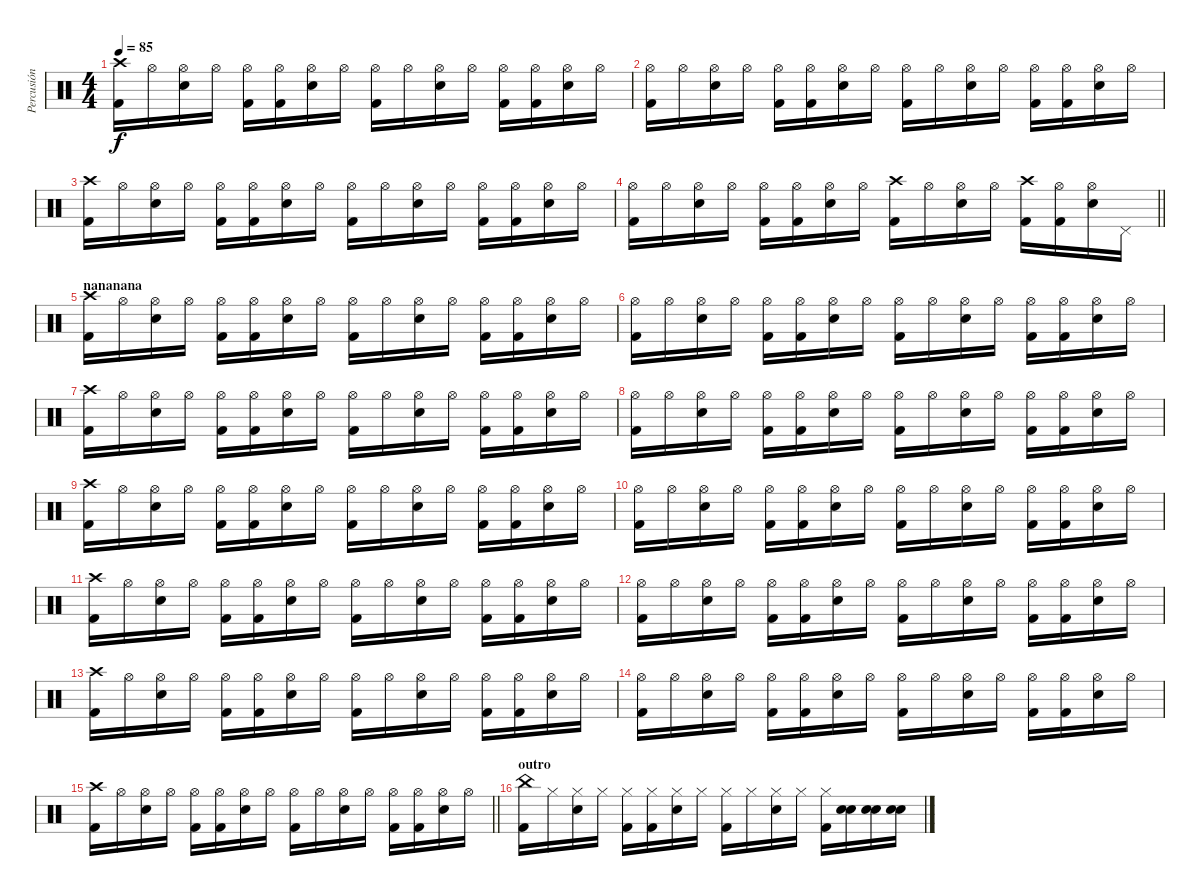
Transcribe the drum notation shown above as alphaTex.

\track ("Percusión" "Percusión") {instrument percussion}
\staff {score}
\articulation defaults
\ts (4 4)
\tempo 85
\clef neutral
\ks c
("Crash high (hit)" "Kick (hit) 2").16{dy f} "Hi-Hat (open)".16 ("Hi-Hat (open)" "Electric Snare (hit)").16 "Hi-Hat (open)".16 ("Hi-Hat (open)" "Kick (hit) 2").16 ("Hi-Hat (open)" "Kick (hit) 2").16 ("Hi-Hat (open)" "Electric Snare (hit)").16 "Hi-Hat (open)".16 ("Hi-Hat (open)" "Kick (hit) 2").16 "Hi-Hat (open)".16 ("Hi-Hat (open)" "Electric Snare (hit)").16 "Hi-Hat (open)".16 ("Hi-Hat (open)" "Kick (hit) 2").16 ("Hi-Hat (open)" "Kick (hit) 2").16 ("Hi-Hat (open)" "Electric Snare (hit)").16 "Hi-Hat (open)".16 |
("Hi-Hat (open)" "Kick (hit) 2").16 "Hi-Hat (open)".16 ("Hi-Hat (open)" "Electric Snare (hit)").16 "Hi-Hat (open)".16 ("Hi-Hat (open)" "Kick (hit) 2").16 ("Hi-Hat (open)" "Kick (hit) 2").16 ("Hi-Hat (open)" "Electric Snare (hit)").16 "Hi-Hat (open)".16 ("Hi-Hat (open)" "Kick (hit) 2").16 "Hi-Hat (open)".16 ("Hi-Hat (open)" "Electric Snare (hit)").16 "Hi-Hat (open)".16 ("Hi-Hat (open)" "Kick (hit) 2").16 ("Hi-Hat (open)" "Kick (hit) 2").16 ("Hi-Hat (open)" "Electric Snare (hit)").16 "Hi-Hat (open)".16 |
("Crash high (hit)" "Kick (hit) 2").16 "Hi-Hat (open)".16 ("Hi-Hat (open)" "Electric Snare (hit)").16 "Hi-Hat (open)".16 ("Hi-Hat (open)" "Kick (hit) 2").16 ("Hi-Hat (open)" "Kick (hit) 2").16 ("Hi-Hat (open)" "Electric Snare (hit)").16 "Hi-Hat (open)".16 ("Hi-Hat (open)" "Kick (hit) 2").16 "Hi-Hat (open)".16 ("Hi-Hat (open)" "Electric Snare (hit)").16 "Hi-Hat (open)".16 ("Hi-Hat (open)" "Kick (hit) 2").16 ("Hi-Hat (open)" "Kick (hit) 2").16 ("Hi-Hat (open)" "Electric Snare (hit)").16 "Hi-Hat (open)".16 |
\barLineRight lightlight
("Hi-Hat (open)" "Kick (hit) 2").16 "Hi-Hat (open)".16 ("Hi-Hat (open)" "Electric Snare (hit)").16 "Hi-Hat (open)".16 ("Hi-Hat (open)" "Kick (hit) 2").16 ("Hi-Hat (open)" "Kick (hit) 2").16 ("Hi-Hat (open)" "Electric Snare (hit)").16 "Hi-Hat (open)".16 ("Crash high (hit)" "Kick (hit) 2").16 "Hi-Hat (open)".16 ("Hi-Hat (open)" "Electric Snare (hit)").16 "Hi-Hat (open)".16 ("Crash high (hit)" "Kick (hit) 2").16 ("Hi-Hat (open)" "Kick (hit) 2").16 ("Hi-Hat (open)" "Electric Snare (hit)").16 "Pedal Hi-Hat (hit)".16 |
\section ("" "nananana")
("Crash high (hit)" "Kick (hit) 2").16 "Hi-Hat (open)".16 ("Hi-Hat (open)" "Electric Snare (hit)").16 "Hi-Hat (open)".16 ("Hi-Hat (open)" "Kick (hit) 2").16 ("Hi-Hat (open)" "Kick (hit) 2").16 ("Hi-Hat (open)" "Electric Snare (hit)").16 "Hi-Hat (open)".16 ("Hi-Hat (open)" "Kick (hit) 2").16 "Hi-Hat (open)".16 ("Hi-Hat (open)" "Electric Snare (hit)").16 "Hi-Hat (open)".16 ("Hi-Hat (open)" "Kick (hit) 2").16 ("Hi-Hat (open)" "Kick (hit) 2").16 ("Hi-Hat (open)" "Electric Snare (hit)").16 "Hi-Hat (open)".16 |
("Hi-Hat (open)" "Kick (hit) 2").16 "Hi-Hat (open)".16 ("Hi-Hat (open)" "Electric Snare (hit)").16 "Hi-Hat (open)".16 ("Hi-Hat (open)" "Kick (hit) 2").16 ("Hi-Hat (open)" "Kick (hit) 2").16 ("Hi-Hat (open)" "Electric Snare (hit)").16 "Hi-Hat (open)".16 ("Hi-Hat (open)" "Kick (hit) 2").16 "Hi-Hat (open)".16 ("Hi-Hat (open)" "Electric Snare (hit)").16 "Hi-Hat (open)".16 ("Hi-Hat (open)" "Kick (hit) 2").16 ("Hi-Hat (open)" "Kick (hit) 2").16 ("Hi-Hat (open)" "Electric Snare (hit)").16 "Hi-Hat (open)".16 |
("Crash high (hit)" "Kick (hit) 2").16 "Hi-Hat (open)".16 ("Hi-Hat (open)" "Electric Snare (hit)").16 "Hi-Hat (open)".16 ("Hi-Hat (open)" "Kick (hit) 2").16 ("Hi-Hat (open)" "Kick (hit) 2").16 ("Hi-Hat (open)" "Electric Snare (hit)").16 "Hi-Hat (open)".16 ("Hi-Hat (open)" "Kick (hit) 2").16 "Hi-Hat (open)".16 ("Hi-Hat (open)" "Electric Snare (hit)").16 "Hi-Hat (open)".16 ("Hi-Hat (open)" "Kick (hit) 2").16 ("Hi-Hat (open)" "Kick (hit) 2").16 ("Hi-Hat (open)" "Electric Snare (hit)").16 "Hi-Hat (open)".16 |
("Hi-Hat (open)" "Kick (hit) 2").16 "Hi-Hat (open)".16 ("Hi-Hat (open)" "Electric Snare (hit)").16 "Hi-Hat (open)".16 ("Hi-Hat (open)" "Kick (hit) 2").16 ("Hi-Hat (open)" "Kick (hit) 2").16 ("Hi-Hat (open)" "Electric Snare (hit)").16 "Hi-Hat (open)".16 ("Hi-Hat (open)" "Kick (hit) 2").16 "Hi-Hat (open)".16 ("Hi-Hat (open)" "Electric Snare (hit)").16 "Hi-Hat (open)".16 ("Hi-Hat (open)" "Kick (hit) 2").16 ("Hi-Hat (open)" "Kick (hit) 2").16 ("Hi-Hat (open)" "Electric Snare (hit)").16 "Hi-Hat (open)".16 |
("Crash high (hit)" "Kick (hit) 2").16 "Hi-Hat (open)".16 ("Hi-Hat (open)" "Electric Snare (hit)").16 "Hi-Hat (open)".16 ("Hi-Hat (open)" "Kick (hit) 2").16 ("Hi-Hat (open)" "Kick (hit) 2").16 ("Hi-Hat (open)" "Electric Snare (hit)").16 "Hi-Hat (open)".16 ("Hi-Hat (open)" "Kick (hit) 2").16 "Hi-Hat (open)".16 ("Hi-Hat (open)" "Electric Snare (hit)").16 "Hi-Hat (open)".16 ("Hi-Hat (open)" "Kick (hit) 2").16 ("Hi-Hat (open)" "Kick (hit) 2").16 ("Hi-Hat (open)" "Electric Snare (hit)").16 "Hi-Hat (open)".16 |
("Hi-Hat (open)" "Kick (hit) 2").16 "Hi-Hat (open)".16 ("Hi-Hat (open)" "Electric Snare (hit)").16 "Hi-Hat (open)".16 ("Hi-Hat (open)" "Kick (hit) 2").16 ("Hi-Hat (open)" "Kick (hit) 2").16 ("Hi-Hat (open)" "Electric Snare (hit)").16 "Hi-Hat (open)".16 ("Hi-Hat (open)" "Kick (hit) 2").16 "Hi-Hat (open)".16 ("Hi-Hat (open)" "Electric Snare (hit)").16 "Hi-Hat (open)".16 ("Hi-Hat (open)" "Kick (hit) 2").16 ("Hi-Hat (open)" "Kick (hit) 2").16 ("Hi-Hat (open)" "Electric Snare (hit)").16 "Hi-Hat (open)".16 |
("Crash high (hit)" "Kick (hit) 2").16 "Hi-Hat (open)".16 ("Hi-Hat (open)" "Electric Snare (hit)").16 "Hi-Hat (open)".16 ("Hi-Hat (open)" "Kick (hit) 2").16 ("Hi-Hat (open)" "Kick (hit) 2").16 ("Hi-Hat (open)" "Electric Snare (hit)").16 "Hi-Hat (open)".16 ("Hi-Hat (open)" "Kick (hit) 2").16 "Hi-Hat (open)".16 ("Hi-Hat (open)" "Electric Snare (hit)").16 "Hi-Hat (open)".16 ("Hi-Hat (open)" "Kick (hit) 2").16 ("Hi-Hat (open)" "Kick (hit) 2").16 ("Hi-Hat (open)" "Electric Snare (hit)").16 "Hi-Hat (open)".16 |
("Hi-Hat (open)" "Kick (hit) 2").16 "Hi-Hat (open)".16 ("Hi-Hat (open)" "Electric Snare (hit)").16 "Hi-Hat (open)".16 ("Hi-Hat (open)" "Kick (hit) 2").16 ("Hi-Hat (open)" "Kick (hit) 2").16 ("Hi-Hat (open)" "Electric Snare (hit)").16 "Hi-Hat (open)".16 ("Hi-Hat (open)" "Kick (hit) 2").16 "Hi-Hat (open)".16 ("Hi-Hat (open)" "Electric Snare (hit)").16 "Hi-Hat (open)".16 ("Hi-Hat (open)" "Kick (hit) 2").16 ("Hi-Hat (open)" "Kick (hit) 2").16 ("Hi-Hat (open)" "Electric Snare (hit)").16 "Hi-Hat (open)".16 |
("Crash high (hit)" "Kick (hit) 2").16 "Hi-Hat (open)".16 ("Hi-Hat (open)" "Electric Snare (hit)").16 "Hi-Hat (open)".16 ("Hi-Hat (open)" "Kick (hit) 2").16 ("Hi-Hat (open)" "Kick (hit) 2").16 ("Hi-Hat (open)" "Electric Snare (hit)").16 "Hi-Hat (open)".16 ("Hi-Hat (open)" "Kick (hit) 2").16 "Hi-Hat (open)".16 ("Hi-Hat (open)" "Electric Snare (hit)").16 "Hi-Hat (open)".16 ("Hi-Hat (open)" "Kick (hit) 2").16 ("Hi-Hat (open)" "Kick (hit) 2").16 ("Hi-Hat (open)" "Electric Snare (hit)").16 "Hi-Hat (open)".16 |
("Hi-Hat (open)" "Kick (hit) 2").16 "Hi-Hat (open)".16 ("Hi-Hat (open)" "Electric Snare (hit)").16 "Hi-Hat (open)".16 ("Hi-Hat (open)" "Kick (hit) 2").16 ("Hi-Hat (open)" "Kick (hit) 2").16 ("Hi-Hat (open)" "Electric Snare (hit)").16 "Hi-Hat (open)".16 ("Hi-Hat (open)" "Kick (hit) 2").16 "Hi-Hat (open)".16 ("Hi-Hat (open)" "Electric Snare (hit)").16 "Hi-Hat (open)".16 ("Hi-Hat (open)" "Kick (hit) 2").16 ("Hi-Hat (open)" "Kick (hit) 2").16 ("Hi-Hat (open)" "Electric Snare (hit)").16 "Hi-Hat (open)".16 |
\barLineRight lightlight
("Crash high (hit)" "Kick (hit) 2").16 "Hi-Hat (open)".16 ("Hi-Hat (open)" "Electric Snare (hit)").16 "Hi-Hat (open)".16 ("Hi-Hat (open)" "Kick (hit) 2").16 ("Hi-Hat (open)" "Kick (hit) 2").16 ("Hi-Hat (open)" "Electric Snare (hit)").16 "Hi-Hat (open)".16 ("Hi-Hat (open)" "Kick (hit) 2").16 "Hi-Hat (open)".16 ("Hi-Hat (open)" "Electric Snare (hit)").16 "Hi-Hat (open)".16 ("Hi-Hat (open)" "Kick (hit) 2").16 ("Hi-Hat (open)" "Kick (hit) 2").16 ("Hi-Hat (open)" "Electric Snare (hit)").16 "Hi-Hat (open)".16 |
\section ("" "outro")
("China (hit)" "Kick (hit) 2").16 "Hi-Hat (closed)".16 ("Hi-Hat (closed)" "Electric Snare (hit)").16 "Hi-Hat (closed)".16 ("Hi-Hat (closed)" "Kick (hit) 2").16 ("Hi-Hat (closed)" "Kick (hit) 2").16 ("Hi-Hat (closed)" "Electric Snare (hit)").16 "Hi-Hat (closed)".16 ("Hi-Hat (closed)" "Kick (hit) 2").16 "Hi-Hat (closed)".16 ("Hi-Hat (closed)" "Electric Snare (hit)").16 "Hi-Hat (closed)".16 ("Hi-Hat (closed)" "Kick (hit) 2").16 ("Electric Snare (hit)" "Snare (hit) 2").16 ("Electric Snare (hit)" "Snare (hit) 2").16 ("Electric Snare (hit)" "Snare (hit) 2").16
